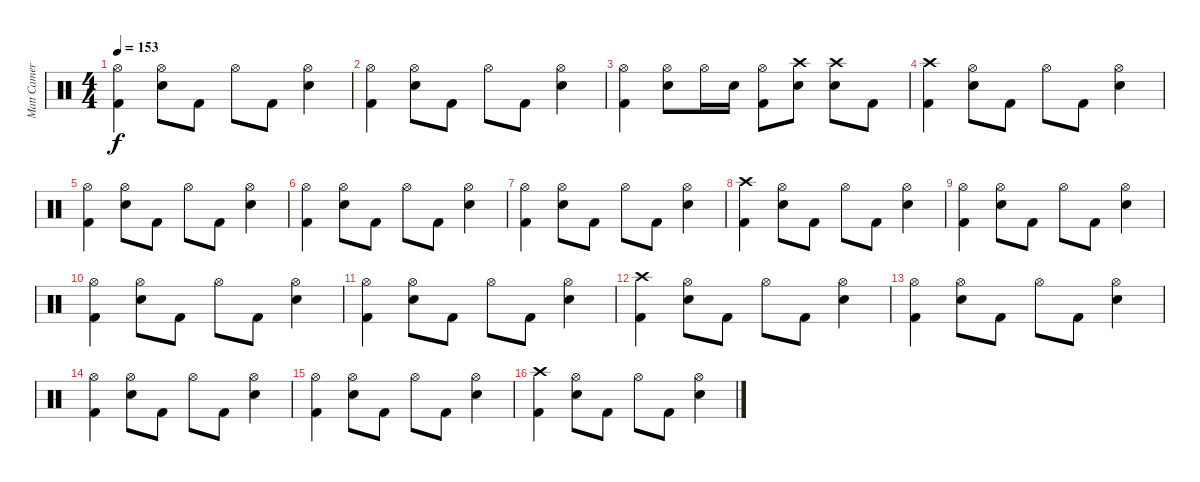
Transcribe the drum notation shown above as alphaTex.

\track ("Matt Cameron" "Matt Camer") {instrument percussion}
\staff {score}
\articulation defaults
\ts (4 4)
\tempo 153
\clef neutral
\ks c
("Hi-Hat (open)" "Kick (hit) 2").4{dy f} ("Hi-Hat (open)" "Electric Snare (hit)").8 "Kick (hit) 2".8 "Hi-Hat (open)".8 "Kick (hit) 2".8 ("Hi-Hat (open)" "Electric Snare (hit)").4 |
("Hi-Hat (open)" "Kick (hit) 2").4 ("Hi-Hat (open)" "Electric Snare (hit)").8 "Kick (hit) 2".8 "Hi-Hat (open)".8 "Kick (hit) 2".8 ("Hi-Hat (open)" "Electric Snare (hit)").4 |
("Hi-Hat (open)" "Kick (hit) 2").4 ("Hi-Hat (open)" "Electric Snare (hit)").8 "Hi-Hat (open)".16 "Electric Snare (hit)".16 ("Hi-Hat (open)" "Kick (hit) 2").8 ("Crash high (hit)" "Electric Snare (hit)").8 ("Crash high (hit)" "Electric Snare (hit)").8 "Kick (hit) 2".8 |
("Crash high (hit)" "Kick (hit) 2").4 ("Hi-Hat (open)" "Electric Snare (hit)").8 "Kick (hit) 2".8 "Hi-Hat (open)".8 "Kick (hit) 2".8 ("Hi-Hat (open)" "Electric Snare (hit)").4 |
("Hi-Hat (open)" "Kick (hit) 2").4 ("Hi-Hat (open)" "Electric Snare (hit)").8 "Kick (hit) 2".8 "Hi-Hat (open)".8 "Kick (hit) 2".8 ("Hi-Hat (open)" "Electric Snare (hit)").4 |
("Hi-Hat (open)" "Kick (hit) 2").4 ("Hi-Hat (open)" "Electric Snare (hit)").8 "Kick (hit) 2".8 "Hi-Hat (open)".8 "Kick (hit) 2".8 ("Hi-Hat (open)" "Electric Snare (hit)").4 |
("Hi-Hat (open)" "Kick (hit) 2").4 ("Hi-Hat (open)" "Electric Snare (hit)").8 "Kick (hit) 2".8 "Hi-Hat (open)".8 "Kick (hit) 2".8 ("Hi-Hat (open)" "Electric Snare (hit)").4 |
("Crash high (hit)" "Kick (hit) 2").4 ("Hi-Hat (open)" "Electric Snare (hit)").8 "Kick (hit) 2".8 "Hi-Hat (open)".8 "Kick (hit) 2".8 ("Hi-Hat (open)" "Electric Snare (hit)").4 |
("Hi-Hat (open)" "Kick (hit) 2").4 ("Hi-Hat (open)" "Electric Snare (hit)").8 "Kick (hit) 2".8 "Hi-Hat (open)".8 "Kick (hit) 2".8 ("Hi-Hat (open)" "Electric Snare (hit)").4 |
("Hi-Hat (open)" "Kick (hit) 2").4 ("Hi-Hat (open)" "Electric Snare (hit)").8 "Kick (hit) 2".8 "Hi-Hat (open)".8 "Kick (hit) 2".8 ("Hi-Hat (open)" "Electric Snare (hit)").4 |
("Hi-Hat (open)" "Kick (hit) 2").4 ("Hi-Hat (open)" "Electric Snare (hit)").8 "Kick (hit) 2".8 "Hi-Hat (open)".8 "Kick (hit) 2".8 ("Hi-Hat (open)" "Electric Snare (hit)").4 |
("Crash high (hit)" "Kick (hit) 2").4 ("Hi-Hat (open)" "Electric Snare (hit)").8 "Kick (hit) 2".8 "Hi-Hat (open)".8 "Kick (hit) 2".8 ("Hi-Hat (open)" "Electric Snare (hit)").4 |
("Hi-Hat (open)" "Kick (hit) 2").4 ("Hi-Hat (open)" "Electric Snare (hit)").8 "Kick (hit) 2".8 "Hi-Hat (open)".8 "Kick (hit) 2".8 ("Hi-Hat (open)" "Electric Snare (hit)").4 |
("Hi-Hat (open)" "Kick (hit) 2").4 ("Hi-Hat (open)" "Electric Snare (hit)").8 "Kick (hit) 2".8 "Hi-Hat (open)".8 "Kick (hit) 2".8 ("Hi-Hat (open)" "Electric Snare (hit)").4 |
("Hi-Hat (open)" "Kick (hit) 2").4 ("Hi-Hat (open)" "Electric Snare (hit)").8 "Kick (hit) 2".8 "Hi-Hat (open)".8 "Kick (hit) 2".8 ("Hi-Hat (open)" "Electric Snare (hit)").4 |
("Crash high (hit)" "Kick (hit) 2").4 ("Hi-Hat (open)" "Electric Snare (hit)").8 "Kick (hit) 2".8 "Hi-Hat (open)".8 "Kick (hit) 2".8 ("Hi-Hat (open)" "Electric Snare (hit)").4
